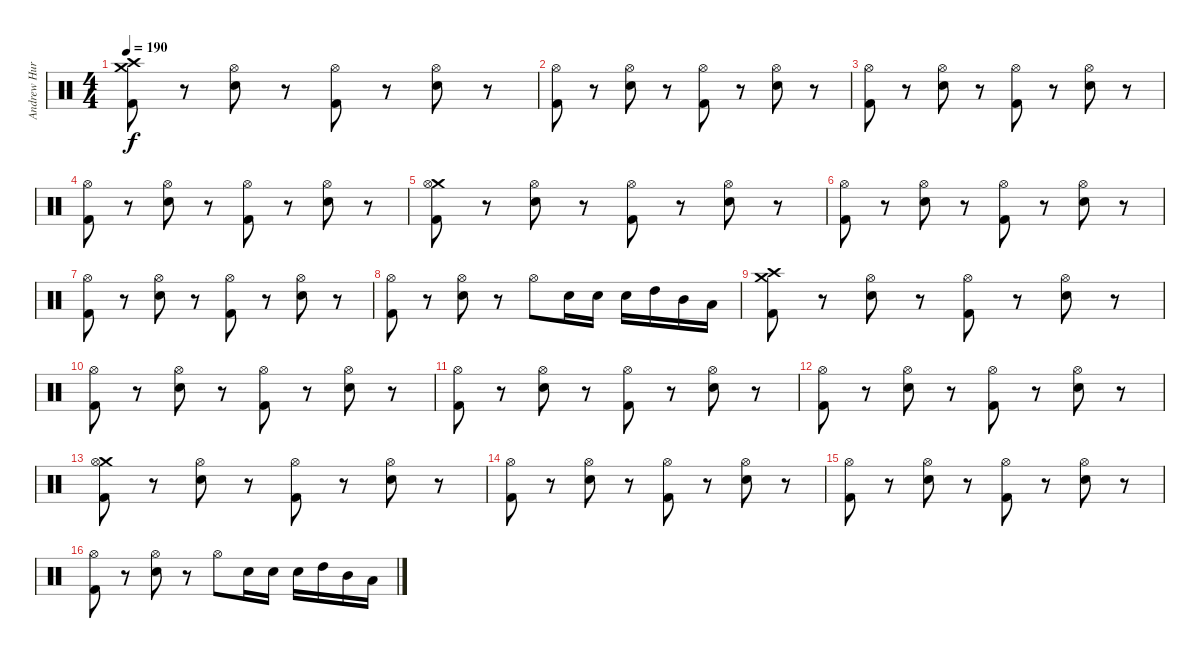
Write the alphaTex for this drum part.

\track ("Andrew Hurley (Drums)" "Andrew Hur") {instrument percussion}
\staff {score}
\articulation defaults
\ts (4 4)
\tempo 190
\clef neutral
\ks c
("Crash medium (hit)" "Crash high (hit)" "Kick (hit) 2").8{dy f} r.8 ("Hi-Hat (open)" "Electric Snare (hit)").8 r.8 ("Hi-Hat (open)" "Kick (hit) 2").8 r.8 ("Hi-Hat (open)" "Electric Snare (hit)").8 r.8 |
("Hi-Hat (open)" "Kick (hit) 2").8 r.8 ("Hi-Hat (open)" "Electric Snare (hit)").8 r.8 ("Hi-Hat (open)" "Kick (hit) 2").8 r.8 ("Hi-Hat (open)" "Electric Snare (hit)").8 r.8 |
("Hi-Hat (open)" "Kick (hit) 2").8 r.8 ("Hi-Hat (open)" "Electric Snare (hit)").8 r.8 ("Hi-Hat (open)" "Kick (hit) 2").8 r.8 ("Hi-Hat (open)" "Electric Snare (hit)").8 r.8 |
("Hi-Hat (open)" "Kick (hit) 2").8 r.8 ("Hi-Hat (open)" "Electric Snare (hit)").8 r.8 ("Hi-Hat (open)" "Kick (hit) 2").8 r.8 ("Hi-Hat (open)" "Electric Snare (hit)").8 r.8 |
("Crash medium (hit)" "Hi-Hat (open)" "Kick (hit) 2").8 r.8 ("Hi-Hat (open)" "Electric Snare (hit)").8 r.8 ("Hi-Hat (open)" "Kick (hit) 2").8 r.8 ("Hi-Hat (open)" "Electric Snare (hit)").8 r.8 |
("Hi-Hat (open)" "Kick (hit) 2").8 r.8 ("Hi-Hat (open)" "Electric Snare (hit)").8 r.8 ("Hi-Hat (open)" "Kick (hit) 2").8 r.8 ("Hi-Hat (open)" "Electric Snare (hit)").8 r.8 |
("Hi-Hat (open)" "Kick (hit) 2").8 r.8 ("Hi-Hat (open)" "Electric Snare (hit)").8 r.8 ("Hi-Hat (open)" "Kick (hit) 2").8 r.8 ("Hi-Hat (open)" "Electric Snare (hit)").8 r.8 |
("Hi-Hat (open)" "Kick (hit) 2").8 r.8 ("Hi-Hat (open)" "Electric Snare (hit)").8 r.8 "Hi-Hat (open)".8 "Electric Snare (hit)".16 "Electric Snare (hit)".16 "Electric Snare (hit)".16 "High Tom (hit)".16 "Mid Tom (hit)".16 "Low Tom (hit)".16 |
("Crash medium (hit)" "Crash high (hit)" "Kick (hit) 2").8 r.8 ("Hi-Hat (open)" "Electric Snare (hit)").8 r.8 ("Hi-Hat (open)" "Kick (hit) 2").8 r.8 ("Hi-Hat (open)" "Electric Snare (hit)").8 r.8 |
("Hi-Hat (open)" "Kick (hit) 2").8 r.8 ("Hi-Hat (open)" "Electric Snare (hit)").8 r.8 ("Hi-Hat (open)" "Kick (hit) 2").8 r.8 ("Hi-Hat (open)" "Electric Snare (hit)").8 r.8 |
("Hi-Hat (open)" "Kick (hit) 2").8 r.8 ("Hi-Hat (open)" "Electric Snare (hit)").8 r.8 ("Hi-Hat (open)" "Kick (hit) 2").8 r.8 ("Hi-Hat (open)" "Electric Snare (hit)").8 r.8 |
("Hi-Hat (open)" "Kick (hit) 2").8 r.8 ("Hi-Hat (open)" "Electric Snare (hit)").8 r.8 ("Hi-Hat (open)" "Kick (hit) 2").8 r.8 ("Hi-Hat (open)" "Electric Snare (hit)").8 r.8 |
("Crash medium (hit)" "Hi-Hat (open)" "Kick (hit) 2").8 r.8 ("Hi-Hat (open)" "Electric Snare (hit)").8 r.8 ("Hi-Hat (open)" "Kick (hit) 2").8 r.8 ("Hi-Hat (open)" "Electric Snare (hit)").8 r.8 |
("Hi-Hat (open)" "Kick (hit) 2").8 r.8 ("Hi-Hat (open)" "Electric Snare (hit)").8 r.8 ("Hi-Hat (open)" "Kick (hit) 2").8 r.8 ("Hi-Hat (open)" "Electric Snare (hit)").8 r.8 |
("Hi-Hat (open)" "Kick (hit) 2").8 r.8 ("Hi-Hat (open)" "Electric Snare (hit)").8 r.8 ("Hi-Hat (open)" "Kick (hit) 2").8 r.8 ("Hi-Hat (open)" "Electric Snare (hit)").8 r.8 |
("Hi-Hat (open)" "Kick (hit) 2").8 r.8 ("Hi-Hat (open)" "Electric Snare (hit)").8 r.8 "Hi-Hat (open)".8 "Electric Snare (hit)".16 "Electric Snare (hit)".16 "Electric Snare (hit)".16 "High Tom (hit)".16 "Mid Tom (hit)".16 "Low Tom (hit)".16
